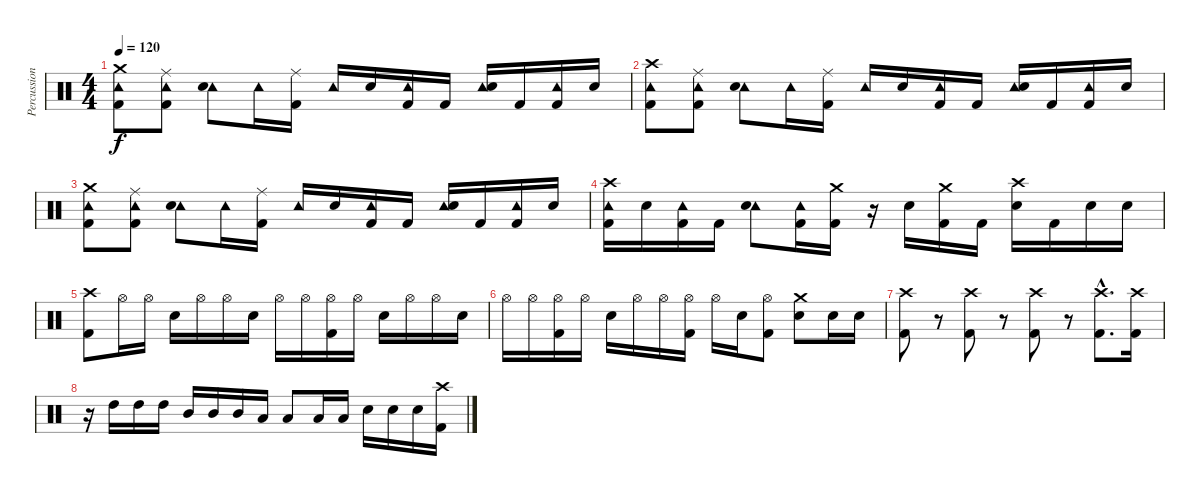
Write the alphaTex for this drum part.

\track ("Percussion" "Percussion") {instrument percussion}
\staff {score}
\articulation defaults
\ts (4 4)
\tempo 120
\clef neutral
\ks c
("Crash medium (hit)" "Tambourine (hit)" "Kick (hit) 2").8{dy f} ("Ride (middle)" "Tambourine (hit)" "Kick (hit) 2").8 ("Tambourine (hit)" "Snare (hit) 2").8 "Tambourine (hit)".16 ("Ride (middle)" "Kick (hit) 2").16 "Tambourine (hit)".16 "Snare (hit) 2".16 ("Tambourine (hit)" "Kick (hit) 2").16 "Kick (hit) 2".16 ("Tambourine (hit)" "Snare (hit) 2").16 "Kick (hit) 2".16 ("Tambourine (hit)" "Kick (hit) 2").16 "Snare (hit) 2".16 |
("Crash high (hit)" "Tambourine (hit)" "Kick (hit) 2").8 ("Ride (middle)" "Tambourine (hit)" "Kick (hit) 2").8 ("Tambourine (hit)" "Snare (hit) 2").8 "Tambourine (hit)".16 ("Ride (middle)" "Kick (hit) 2").16 "Tambourine (hit)".16 "Snare (hit) 2".16 ("Tambourine (hit)" "Kick (hit) 2").16 "Kick (hit) 2".16 ("Tambourine (hit)" "Snare (hit) 2").16 "Kick (hit) 2".16 ("Tambourine (hit)" "Kick (hit) 2").16 "Snare (hit) 2".16 |
("Crash medium (hit)" "Tambourine (hit)" "Kick (hit) 2").8 ("Ride (middle)" "Tambourine (hit)" "Kick (hit) 2").8 ("Tambourine (hit)" "Snare (hit) 2").8 "Tambourine (hit)".16 ("Ride (middle)" "Kick (hit) 2").16 "Tambourine (hit)".16 "Snare (hit) 2".16 ("Tambourine (hit)" "Kick (hit) 2").16 "Kick (hit) 2".16 ("Tambourine (hit)" "Snare (hit) 2").16 "Kick (hit) 2".16 ("Tambourine (hit)" "Kick (hit) 2").16 "Snare (hit) 2".16 |
("Crash high (hit)" "Tambourine (hit)" "Kick (hit) 2").16 "Snare (hit) 2".16 ("Tambourine (hit)" "Kick (hit) 2").16 "Kick (hit) 2".16 ("Tambourine (hit)" "Snare (hit) 2").8 ("Tambourine (hit)" "Kick (hit) 2").16 ("Crash medium (hit)" "Kick (hit) 2").16 r.16 "Snare (hit) 2".16 ("Crash medium (hit)" "Kick (hit) 2").16 "Kick (hit) 2".16 ("Crash high (hit)" "Snare (hit) 2").16 "Kick (hit) 2".16 "Snare (hit) 2".16 "Snare (hit) 2".16 |
("Crash high (hit)" "Kick (hit) 2").8 "Hi-Hat (open)".16 "Hi-Hat (open)".16 "Snare (hit) 2".16 "Hi-Hat (open)".16 "Hi-Hat (open)".16 "Snare (hit) 2".16 "Hi-Hat (open)".16 "Hi-Hat (open)".16 ("Hi-Hat (open)" "Kick (hit) 2").16 "Hi-Hat (open)".16 "Snare (hit) 2".16 "Hi-Hat (open)".16 "Hi-Hat (open)".16 "Snare (hit) 2".16 |
"Hi-Hat (open)".16 "Hi-Hat (open)".16 ("Hi-Hat (open)" "Kick (hit) 2").16 "Hi-Hat (open)".16 "Snare (hit) 2".16 "Hi-Hat (open)".16 "Hi-Hat (open)".16 ("Hi-Hat (open)" "Kick (hit) 2").16 "Hi-Hat (open)".16 "Snare (hit) 2".16 ("Hi-Hat (open)" "Kick (hit) 2").8 ("Crash medium (hit)" "Snare (hit) 2").8 "Snare (hit) 2".16 "Snare (hit) 2".16 |
("Crash high (hit)" "Kick (hit) 2").8 r.8 ("Crash high (hit)" "Kick (hit) 2").8 r.8 ("Crash high (hit)" "Kick (hit) 2").8 r.8 ("Crash high (hit)"{hac} "Kick (hit) 2"{hac}).8{d} ("Crash high (hit)" "Kick (hit) 2").16 |
r.16 "High Tom (hit)".16 "High Tom (hit)".16 "High Tom (hit)".16 "Mid Tom (hit)".16 "Mid Tom (hit)".16 "Mid Tom (hit)".16 "Low Tom (hit)".16 "Low Tom (hit)".8 "Low Tom (hit)".16 "Low Tom (hit)".16 "Snare (hit) 2".16 "Snare (hit) 2".16 "Snare (hit) 2".16 ("Crash high (hit)" "Kick (hit) 2").16
